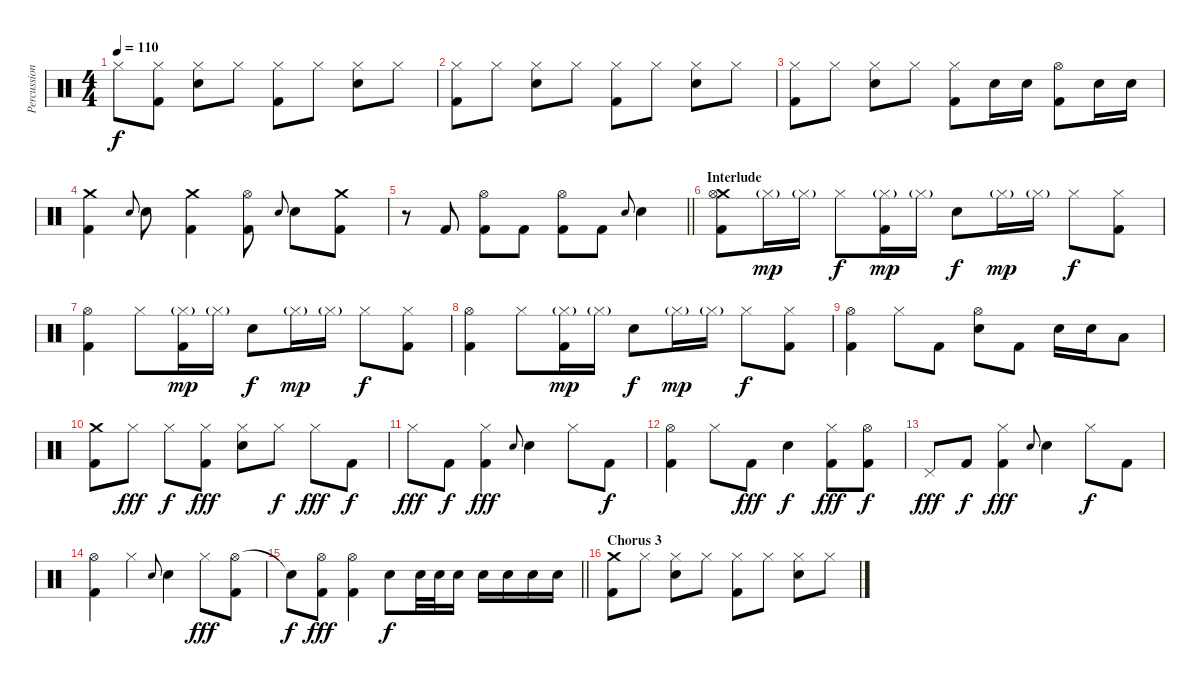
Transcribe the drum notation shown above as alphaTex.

\track ("Percussion" "Percussion") {instrument percussion}
\staff {score}
\articulation defaults
\ts (4 4)
\tempo 110
\clef neutral
\ks aminor "Hi-Hat (closed)".8{dy f}
("Hi-Hat (closed)" "Kick (hit) 2").8 ("Hi-Hat (closed)" "Electric Snare (hit)").8 "Hi-Hat (closed)".8 ("Hi-Hat (closed)" "Kick (hit) 2").8 "Hi-Hat (closed)".8 ("Hi-Hat (closed)" "Electric Snare (hit)").8 "Hi-Hat (closed)".8 |
("Hi-Hat (closed)" "Kick (hit) 2").8 "Hi-Hat (closed)".8 ("Hi-Hat (closed)" "Electric Snare (hit)").8 "Hi-Hat (closed)".8 ("Hi-Hat (closed)" "Kick (hit) 2").8 "Hi-Hat (closed)".8 ("Hi-Hat (closed)" "Electric Snare (hit)").8 "Hi-Hat (closed)".8 |
("Hi-Hat (closed)" "Kick (hit) 2").8 "Hi-Hat (closed)".8 ("Hi-Hat (closed)" "Electric Snare (hit)").8 "Hi-Hat (closed)".8 ("Hi-Hat (closed)" "Kick (hit) 2").8 "Electric Snare (hit)".16 "Electric Snare (hit)".16 ("Hi-Hat (open)" "Kick (hit) 2").8 "Electric Snare (hit)".16 "Electric Snare (hit)".16 |
("Crash medium (hit)" "Kick (hit) 2").4 "Electric Snare (hit)".8{gr onbeat} "Electric Snare (hit)".8 ("Crash medium (hit)" "Kick (hit) 2").4 ("Hi-Hat (open)" "Kick (hit) 2").8 "Electric Snare (hit)".8{gr onbeat} "Electric Snare (hit)".8 ("Crash medium (hit)" "Kick (hit) 2").8 |
\barLineRight lightlight
r.8 "Kick (hit) 2".8 ("Hi-Hat (open)" "Kick (hit) 2").8 "Kick (hit) 2".8 ("Hi-Hat (open)" "Kick (hit) 2").8 "Kick (hit) 2".8 "Electric Snare (hit)".8{gr onbeat} "Electric Snare (hit)".4 |
\section ("" "Interlude")
("Crash medium (hit)" "Hi-Hat (open)" "Kick (hit) 2").8 "Hi-Hat (closed)"{g}.16{dy mp} "Hi-Hat (closed)"{g}.16 "Hi-Hat (closed)".8{dy f} ("Hi-Hat (closed)"{g} "Kick (hit) 2").16{dy mp} "Hi-Hat (closed)"{g}.16 "Electric Snare (hit)".8{dy f} "Hi-Hat (closed)"{g}.16{dy mp} "Hi-Hat (closed)"{g}.16 "Hi-Hat (closed)".8{dy f} ("Hi-Hat (closed)" "Kick (hit) 2").8 |
("Hi-Hat (open)" "Kick (hit) 2").4 "Hi-Hat (closed)".8 ("Hi-Hat (closed)"{g} "Kick (hit) 2").16{dy mp} "Hi-Hat (closed)"{g}.16 "Electric Snare (hit)".8{dy f} "Hi-Hat (closed)"{g}.16{dy mp} "Hi-Hat (closed)"{g}.16 "Hi-Hat (closed)".8{dy f} ("Hi-Hat (closed)" "Kick (hit) 2").8 |
("Hi-Hat (open)" "Kick (hit) 2").4 "Hi-Hat (closed)".8 ("Hi-Hat (closed)"{g} "Kick (hit) 2").16{dy mp} "Hi-Hat (closed)"{g}.16 "Electric Snare (hit)".8{dy f} "Hi-Hat (closed)"{g}.16{dy mp} "Hi-Hat (closed)"{g}.16 "Hi-Hat (closed)".8{dy f} ("Hi-Hat (closed)" "Kick (hit) 2").8 |
("Hi-Hat (open)" "Kick (hit) 2").4 "Hi-Hat (closed)".8 "Kick (hit) 2".8 ("Hi-Hat (open)" "Electric Snare (hit)").8 "Kick (hit) 2".8 "Electric Snare (hit)".16 "Electric Snare (hit)".16 "Low Tom (hit)".8 |
("Crash medium (hit)" "Kick (hit) 2").8 "Hi-Hat (closed)".8{dy fff} "Hi-Hat (closed)".8{dy f} ("Hi-Hat (closed)" "Kick (hit) 2").8{dy fff} ("Hi-Hat (closed)" "Electric Snare (hit)").8 "Hi-Hat (closed)".8{dy f} "Hi-Hat (closed)".8{dy fff} "Kick (hit) 2".8{dy f} |
"Hi-Hat (closed)".8{dy fff} "Kick (hit) 2".8{dy f} ("Hi-Hat (closed)" "Kick (hit) 2").4{dy fff} "Electric Snare (hit)".8{gr onbeat} "Electric Snare (hit)".4 "Hi-Hat (closed)".8 "Kick (hit) 2".8{dy f} |
("Hi-Hat (open)" "Kick (hit) 2").4 "Hi-Hat (closed)".8 "Kick (hit) 2".8{dy fff} "Electric Snare (hit)".4{dy f} ("Hi-Hat (closed)" "Kick (hit) 2").8{dy fff} ("Hi-Hat (open)" "Kick (hit) 2").8{dy f} |
"Pedal Hi-Hat (hit)".8{dy fff} "Kick (hit) 2".8{dy f} ("Hi-Hat (closed)" "Kick (hit) 2").4{dy fff} "Electric Snare (hit)".8{gr onbeat} "Electric Snare (hit)".4 "Hi-Hat (closed)".8{dy f} "Kick (hit) 2".8 |
("Hi-Hat (open)" "Kick (hit) 2").4 "Hi-Hat (closed)".4 "Electric Snare (hit)".8{gr onbeat} "Electric Snare (hit)".4 "Hi-Hat (closed)".8{dy fff} ("Hi-Hat (open)" "Kick (hit) 2").8 |
\barLineRight lightlight "Snare (hit)"{t}.8{dy f}
("Hi-Hat (open)" "Kick (hit) 2").8{dy fff} ("Hi-Hat (open)" "Kick (hit) 2").4 "Electric Snare (hit)".8{dy f} "Electric Snare (hit)".32 "Electric Snare (hit)".32 "Electric Snare (hit)".16 "Electric Snare (hit)".16 "Electric Snare (hit)".16 "Electric Snare (hit)".16 "Electric Snare (hit)".16 |
\section ("" "Chorus 3")
("Crash medium (hit)" "Kick (hit) 2").8 "Hi-Hat (closed)".8 ("Hi-Hat (closed)" "Electric Snare (hit)").8 "Hi-Hat (closed)".8 ("Hi-Hat (closed)" "Kick (hit) 2").8 "Hi-Hat (closed)".8 ("Hi-Hat (closed)" "Electric Snare (hit)").8 "Hi-Hat (closed)".8
